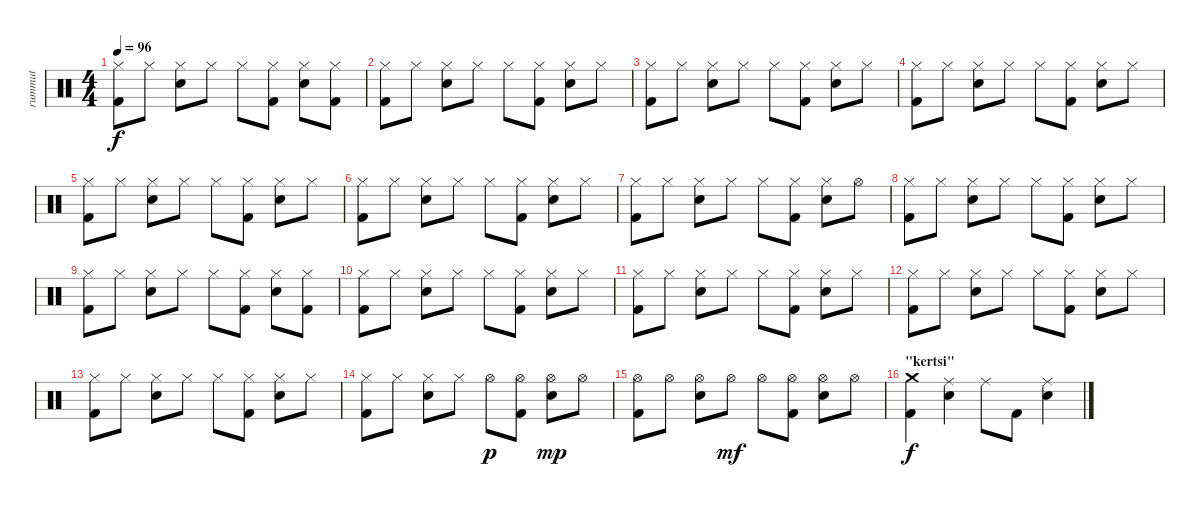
\track ("rummut" "rummut") {instrument percussion}
\staff {score}
\articulation defaults
\ts (4 4)
\tempo 96
\clef neutral
\ks c
("Kick (hit) 2" "Hi-Hat (closed)").8{dy f} "Hi-Hat (closed)".8 ("Hi-Hat (closed)" "Snare (hit) 2").8 "Hi-Hat (closed)".8 "Hi-Hat (closed)".8 ("Kick (hit) 2" "Hi-Hat (closed)").8 ("Hi-Hat (closed)" "Snare (hit) 2").8 ("Kick (hit) 2" "Hi-Hat (closed)").8 |
("Kick (hit) 2" "Hi-Hat (closed)").8 "Hi-Hat (closed)".8 ("Hi-Hat (closed)" "Snare (hit) 2").8 "Hi-Hat (closed)".8 "Hi-Hat (closed)".8 ("Kick (hit) 2" "Hi-Hat (closed)").8 ("Hi-Hat (closed)" "Snare (hit) 2").8 "Hi-Hat (closed)".8 |
("Kick (hit) 2" "Hi-Hat (closed)").8 "Hi-Hat (closed)".8 ("Hi-Hat (closed)" "Snare (hit) 2").8 "Hi-Hat (closed)".8 "Hi-Hat (closed)".8 ("Kick (hit) 2" "Hi-Hat (closed)").8 ("Hi-Hat (closed)" "Snare (hit) 2").8 "Hi-Hat (closed)".8 |
("Kick (hit) 2" "Hi-Hat (closed)").8 "Hi-Hat (closed)".8 ("Hi-Hat (closed)" "Snare (hit) 2").8 "Hi-Hat (closed)".8 "Hi-Hat (closed)".8 ("Kick (hit) 2" "Hi-Hat (closed)").8 ("Hi-Hat (closed)" "Snare (hit) 2").8 "Hi-Hat (closed)".8 |
("Kick (hit) 2" "Hi-Hat (closed)").8 "Hi-Hat (closed)".8 ("Hi-Hat (closed)" "Snare (hit) 2").8 "Hi-Hat (closed)".8 "Hi-Hat (closed)".8 ("Kick (hit) 2" "Hi-Hat (closed)").8 ("Hi-Hat (closed)" "Snare (hit) 2").8 "Hi-Hat (closed)".8 |
("Kick (hit) 2" "Hi-Hat (closed)").8 "Hi-Hat (closed)".8 ("Hi-Hat (closed)" "Snare (hit) 2").8 "Hi-Hat (closed)".8 "Hi-Hat (closed)".8 ("Kick (hit) 2" "Hi-Hat (closed)").8 ("Hi-Hat (closed)" "Snare (hit) 2").8 "Hi-Hat (closed)".8 |
("Kick (hit) 2" "Hi-Hat (closed)").8 "Hi-Hat (closed)".8 ("Hi-Hat (closed)" "Snare (hit) 2").8 "Hi-Hat (closed)".8 "Hi-Hat (closed)".8 ("Kick (hit) 2" "Hi-Hat (closed)").8 ("Hi-Hat (closed)" "Snare (hit) 2").8 "Hi-Hat (open)".8 |
("Kick (hit) 2" "Hi-Hat (closed)").8 "Hi-Hat (closed)".8 ("Hi-Hat (closed)" "Snare (hit) 2").8 "Hi-Hat (closed)".8 "Hi-Hat (closed)".8 ("Kick (hit) 2" "Hi-Hat (closed)").8 ("Hi-Hat (closed)" "Snare (hit) 2").8 "Hi-Hat (closed)".8 |
("Kick (hit) 2" "Hi-Hat (closed)").8 "Hi-Hat (closed)".8 ("Hi-Hat (closed)" "Snare (hit) 2").8 "Hi-Hat (closed)".8 "Hi-Hat (closed)".8 ("Kick (hit) 2" "Hi-Hat (closed)").8 ("Hi-Hat (closed)" "Snare (hit) 2").8 ("Kick (hit) 2" "Hi-Hat (closed)").8 |
("Kick (hit) 2" "Hi-Hat (closed)").8 "Hi-Hat (closed)".8 ("Hi-Hat (closed)" "Snare (hit) 2").8 "Hi-Hat (closed)".8 "Hi-Hat (closed)".8 ("Kick (hit) 2" "Hi-Hat (closed)").8 ("Hi-Hat (closed)" "Snare (hit) 2").8 "Hi-Hat (closed)".8 |
("Kick (hit) 2" "Hi-Hat (closed)").8 "Hi-Hat (closed)".8 ("Hi-Hat (closed)" "Snare (hit) 2").8 "Hi-Hat (closed)".8 "Hi-Hat (closed)".8 ("Kick (hit) 2" "Hi-Hat (closed)").8 ("Hi-Hat (closed)" "Snare (hit) 2").8 "Hi-Hat (closed)".8 |
("Kick (hit) 2" "Hi-Hat (closed)").8 "Hi-Hat (closed)".8 ("Hi-Hat (closed)" "Snare (hit) 2").8 "Hi-Hat (closed)".8 "Hi-Hat (closed)".8 ("Kick (hit) 2" "Hi-Hat (closed)").8 ("Hi-Hat (closed)" "Snare (hit) 2").8 "Hi-Hat (closed)".8 |
("Kick (hit) 2" "Hi-Hat (closed)").8 "Hi-Hat (closed)".8 ("Hi-Hat (closed)" "Snare (hit) 2").8 "Hi-Hat (closed)".8 "Hi-Hat (closed)".8 ("Kick (hit) 2" "Hi-Hat (closed)").8 ("Hi-Hat (closed)" "Snare (hit) 2").8 "Hi-Hat (closed)".8 |
("Kick (hit) 2" "Hi-Hat (closed)").8 "Hi-Hat (closed)".8 ("Hi-Hat (closed)" "Snare (hit) 2").8 "Hi-Hat (closed)".8 "Hi-Hat (open)".8{dy p} ("Kick (hit) 2" "Hi-Hat (open)").8 ("Hi-Hat (open)" "Snare (hit) 2").8{dy mp} "Hi-Hat (open)".8 |
("Kick (hit) 2" "Hi-Hat (open)").8 "Hi-Hat (open)".8 ("Hi-Hat (open)" "Snare (hit) 2").8 "Hi-Hat (open)".8{dy mf} "Hi-Hat (open)".8 ("Kick (hit) 2" "Hi-Hat (open)").8 ("Hi-Hat (open)" "Snare (hit) 2").8 "Hi-Hat (open)".8 |
\section ("" "\"kertsi\"")
("Kick (hit) 2" "Crash medium (hit)").4{dy f} ("Ride (middle)" "Snare (hit) 2").4 "Ride (middle)".8 "Kick (hit) 2".8 ("Ride (middle)" "Snare (hit) 2").4
